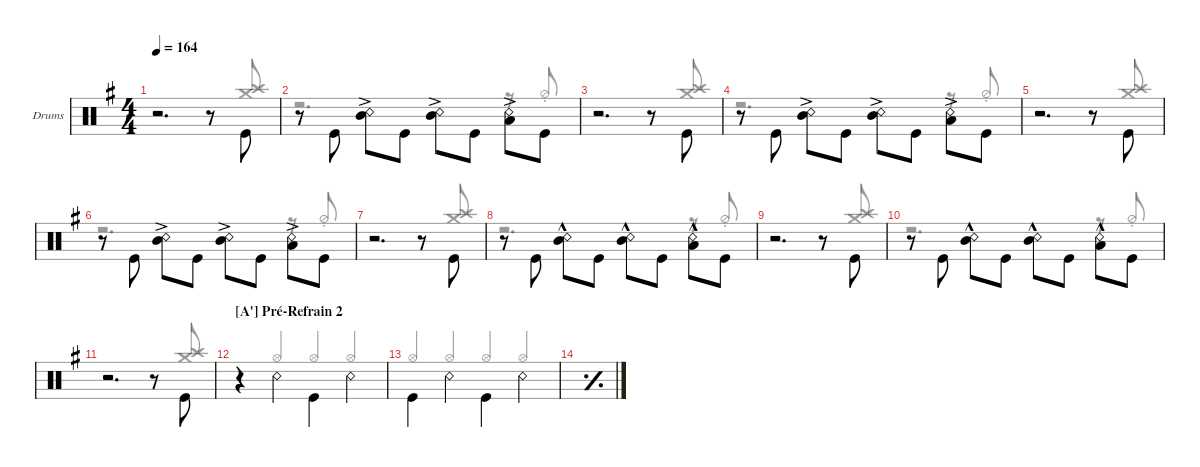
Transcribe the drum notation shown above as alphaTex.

\defaultSystemsLayout 4
\hideDynamics
\bracketExtendMode groupsimilarinstruments
\firstSystemTrackNameOrientation horizontal
\otherSystemsTrackNameOrientation horizontal
\track ("Drumkit" "Drums") {multiBarRest instrument percussion}
\staff {score}
\articulation defaults
\voice
\ts (4 4)
\tempo 164
\clef neutral
\ks eminor
r.2{d dy ff} r.8 "Kick (hit)".8{beam invert} |
r.8 "Kick (hit)".8{beam invert} ("Snare (rim shot)" "Mid Tom (hit)"{ac}).8{beam invert} "Kick (hit)".8 ("Snare (rim shot)" "Mid Tom (hit)"{ac}).8{beam invert} "Kick (hit)".8 ("Snare (rim shot)" "Low Tom (hit)"{ac}).8{beam invert} "Kick (hit)".8 |
r.2{d} r.8 "Kick (hit)".8{beam invert} |
r.8 "Kick (hit)".8{beam invert} ("Snare (rim shot)" "Mid Tom (hit)"{ac}).8{beam invert} "Kick (hit)".8 ("Snare (rim shot)" "Mid Tom (hit)"{ac}).8{beam invert} "Kick (hit)".8 ("Snare (rim shot)" "Low Tom (hit)"{ac}).8{beam invert} "Kick (hit)".8 |
r.2{d} r.8 "Kick (hit)".8{beam invert} |
r.8 "Kick (hit)".8{beam invert} ("Snare (rim shot)" "Mid Tom (hit)"{ac}).8{beam invert} "Kick (hit)".8 ("Snare (rim shot)" "Mid Tom (hit)"{ac}).8{beam invert} "Kick (hit)".8 ("Snare (rim shot)" "Low Tom (hit)"{ac}).8{beam invert} "Kick (hit)".8 |
r.2{d} r.8 "Kick (hit)".8{beam invert} |
r.8 "Kick (hit)".8{beam invert} ("Snare (rim shot)" "Mid Tom (hit)"{hac}).8{beam invert} "Kick (hit)".8 ("Snare (rim shot)" "Mid Tom (hit)"{hac}).8{beam invert} "Kick (hit)".8 ("Snare (rim shot)" "Low Tom (hit)"{hac}).8{beam invert} "Kick (hit)".8 |
r.2{d} r.8 "Kick (hit)".8{beam invert} |
r.8 "Kick (hit)".8{beam invert} ("Snare (rim shot)" "Mid Tom (hit)"{hac}).8{beam invert} "Kick (hit)".8 ("Snare (rim shot)" "Mid Tom (hit)"{hac}).8{beam invert} "Kick (hit)".8 ("Snare (rim shot)" "Low Tom (hit)"{hac}).8{beam invert} "Kick (hit)".8 |
r.2{d} r.8 "Kick (hit)".8{beam invert} |
\section ("A'" "Pré-Refrain 2")
r.4 "Snare (rim shot)".4{beam invert} "Kick (hit)".4{beam invert} "Snare (rim shot)".4{beam invert} |
"Kick (hit)".4{beam invert} "Snare (rim shot)".4{beam invert} "Kick (hit)".4{beam invert} "Snare (rim shot)".4{beam invert} |
\simile simple
|
|
\voice
\clef neutral
\ottava regular
\simile none
\ks eminor
r.2{d dy f} r.8 ("Crash high (hit)" "Crash medium (hit)").8{beam invert} |
r.2{d} r.8 "Hi-Hat (half)"{st}.8{beam invert} |
r.2{d} r.8 ("Crash high (hit)" "Crash medium (hit)").8{beam invert} |
r.2{d} r.8 "Hi-Hat (half)"{st}.8{beam invert} |
r.2{d} r.8 ("Crash high (hit)" "Crash medium (hit)").8{beam invert} |
r.2{d} r.8 "Hi-Hat (half)"{st}.8{beam invert} |
r.2{d} r.8 ("Crash high (hit)" "Crash medium (hit)").8{beam invert} |
r.2{d} r.8 "Hi-Hat (half)"{st}.8{beam invert} |
r.2{d} r.8 ("Crash high (hit)" "Crash medium (hit)").8{beam invert} |
r.2{d} r.8 "Hi-Hat (half)"{st}.8{beam invert} |
r.2{d} r.8 ("Crash high (hit)" "Crash medium (hit)").8{beam invert} |
r.4 "Hi-Hat (open)".4{beam invert} "Hi-Hat (open)".4{beam invert} "Hi-Hat (open)".4{beam invert} |
"Hi-Hat (open)".4{beam invert} "Hi-Hat (open)".4{beam invert} "Hi-Hat (open)".4{beam invert} "Hi-Hat (open)".4{beam invert} |
\simile simple
|
|
